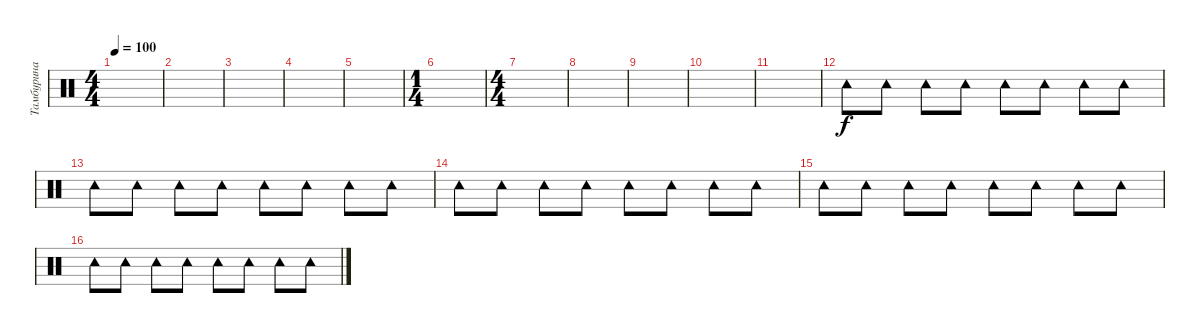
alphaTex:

\track ("Тамбурина" "Тамбурина") {instrument percussion}
\staff {score}
\articulation defaults
\ts (4 4)
\tempo 100
\clef neutral
\ks c
|
|
|
|
|
\ts (1 4)
|
\ts (4 4)
|
|
|
|
|
"Tambourine (hit)".8 "Tambourine (hit)".8 "Tambourine (hit)".8 "Tambourine (hit)".8 "Tambourine (hit)".8 "Tambourine (hit)".8 "Tambourine (hit)".8 "Tambourine (hit)".8 |
"Tambourine (hit)".8 "Tambourine (hit)".8 "Tambourine (hit)".8 "Tambourine (hit)".8 "Tambourine (hit)".8 "Tambourine (hit)".8 "Tambourine (hit)".8 "Tambourine (hit)".8 |
"Tambourine (hit)".8 "Tambourine (hit)".8 "Tambourine (hit)".8 "Tambourine (hit)".8 "Tambourine (hit)".8 "Tambourine (hit)".8 "Tambourine (hit)".8 "Tambourine (hit)".8 |
"Tambourine (hit)".8 "Tambourine (hit)".8 "Tambourine (hit)".8 "Tambourine (hit)".8 "Tambourine (hit)".8 "Tambourine (hit)".8 "Tambourine (hit)".8 "Tambourine (hit)".8 |
"Tambourine (hit)".8 "Tambourine (hit)".8 "Tambourine (hit)".8 "Tambourine (hit)".8 "Tambourine (hit)".8 "Tambourine (hit)".8 "Tambourine (hit)".8 "Tambourine (hit)".8
